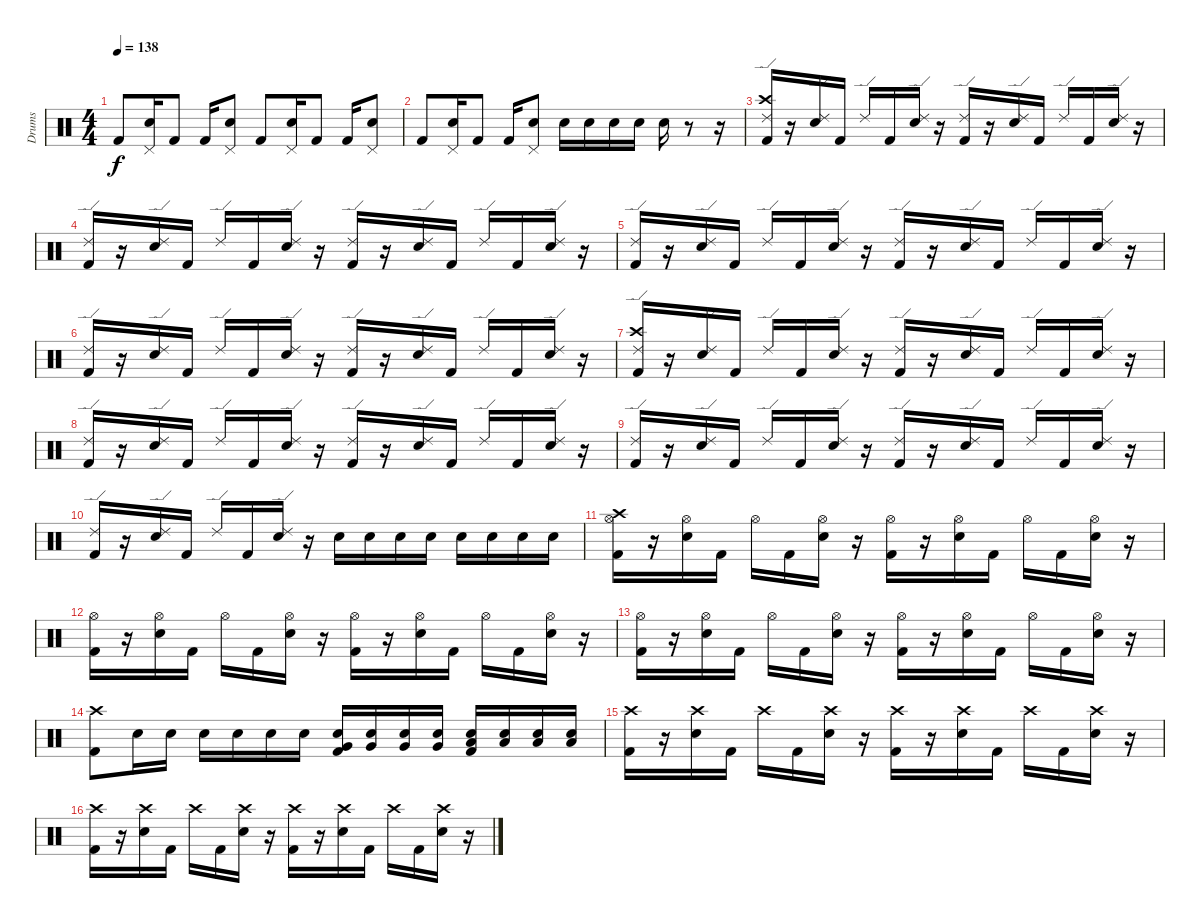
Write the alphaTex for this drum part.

\track ("Drums" "Drums") {instrument percussion}
\staff {score}
\articulation defaults
\ts (4 4)
\tempo 138
\clef neutral
\ks c "Kick (hit) 2".8{dy f}
("Pedal Hi-Hat (hit)" "Snare (hit) 2").16 "Kick (hit) 2".8 "Kick (hit) 2".16 ("Pedal Hi-Hat (hit)" "Snare (hit) 2").8 "Kick (hit) 2".8 ("Pedal Hi-Hat (hit)" "Snare (hit) 2").16 "Kick (hit) 2".8 "Kick (hit) 2".16 ("Pedal Hi-Hat (hit)" "Snare (hit) 2").8 |
"Kick (hit) 2".8 ("Pedal Hi-Hat (hit)" "Snare (hit) 2").16 "Kick (hit) 2".8 "Kick (hit) 2".16 ("Pedal Hi-Hat (hit)" "Snare (hit) 2").8 "Snare (hit) 2".16 "Snare (hit) 2".16 "Snare (hit) 2".16 "Snare (hit) 2".16 "Snare (hit) 2".16 r.8 r.16 |
("Crash high (hit)" "Ride (edge) 2" "Kick (hit) 2").16 r.16 ("Ride (edge) 2" "Snare (hit) 2").16 "Kick (hit) 2".16 "Ride (edge) 2".16 "Kick (hit) 2".16 ("Ride (edge) 2" "Snare (hit) 2").16 r.16 ("Ride (edge) 2" "Kick (hit) 2").16 r.16 ("Ride (edge) 2" "Snare (hit) 2").16 "Kick (hit) 2".16 "Ride (edge) 2".16 "Kick (hit) 2".16 ("Ride (edge) 2" "Snare (hit) 2").16 r.16 |
("Ride (edge) 2" "Kick (hit) 2").16 r.16 ("Ride (edge) 2" "Snare (hit) 2").16 "Kick (hit) 2".16 "Ride (edge) 2".16 "Kick (hit) 2".16 ("Ride (edge) 2" "Snare (hit) 2").16 r.16 ("Ride (edge) 2" "Kick (hit) 2").16 r.16 ("Ride (edge) 2" "Snare (hit) 2").16 "Kick (hit) 2".16 "Ride (edge) 2".16 "Kick (hit) 2".16 ("Ride (edge) 2" "Snare (hit) 2").16 r.16 |
("Ride (edge) 2" "Kick (hit) 2").16 r.16 ("Ride (edge) 2" "Snare (hit) 2").16 "Kick (hit) 2".16 "Ride (edge) 2".16 "Kick (hit) 2".16 ("Ride (edge) 2" "Snare (hit) 2").16 r.16 ("Ride (edge) 2" "Kick (hit) 2").16 r.16 ("Ride (edge) 2" "Snare (hit) 2").16 "Kick (hit) 2".16 "Ride (edge) 2".16 "Kick (hit) 2".16 ("Ride (edge) 2" "Snare (hit) 2").16 r.16 |
("Ride (edge) 2" "Kick (hit) 2").16 r.16 ("Ride (edge) 2" "Snare (hit) 2").16 "Kick (hit) 2".16 "Ride (edge) 2".16 "Kick (hit) 2".16 ("Ride (edge) 2" "Snare (hit) 2").16 r.16 ("Ride (edge) 2" "Kick (hit) 2").16 r.16 ("Ride (edge) 2" "Snare (hit) 2").16 "Kick (hit) 2".16 "Ride (edge) 2".16 "Kick (hit) 2".16 ("Ride (edge) 2" "Snare (hit) 2").16 r.16 |
("Crash high (hit)" "Ride (edge) 2" "Kick (hit) 2").16 r.16 ("Ride (edge) 2" "Snare (hit) 2").16 "Kick (hit) 2".16 "Ride (edge) 2".16 "Kick (hit) 2".16 ("Ride (edge) 2" "Snare (hit) 2").16 r.16 ("Ride (edge) 2" "Kick (hit) 2").16 r.16 ("Ride (edge) 2" "Snare (hit) 2").16 "Kick (hit) 2".16 "Ride (edge) 2".16 "Kick (hit) 2".16 ("Ride (edge) 2" "Snare (hit) 2").16 r.16 |
("Ride (edge) 2" "Kick (hit) 2").16 r.16 ("Ride (edge) 2" "Snare (hit) 2").16 "Kick (hit) 2".16 "Ride (edge) 2".16 "Kick (hit) 2".16 ("Ride (edge) 2" "Snare (hit) 2").16 r.16 ("Ride (edge) 2" "Kick (hit) 2").16 r.16 ("Ride (edge) 2" "Snare (hit) 2").16 "Kick (hit) 2".16 "Ride (edge) 2".16 "Kick (hit) 2".16 ("Ride (edge) 2" "Snare (hit) 2").16 r.16 |
("Ride (edge) 2" "Kick (hit) 2").16 r.16 ("Ride (edge) 2" "Snare (hit) 2").16 "Kick (hit) 2".16 "Ride (edge) 2".16 "Kick (hit) 2".16 ("Ride (edge) 2" "Snare (hit) 2").16 r.16 ("Ride (edge) 2" "Kick (hit) 2").16 r.16 ("Ride (edge) 2" "Snare (hit) 2").16 "Kick (hit) 2".16 "Ride (edge) 2".16 "Kick (hit) 2".16 ("Ride (edge) 2" "Snare (hit) 2").16 r.16 |
("Ride (edge) 2" "Kick (hit) 2").16 r.16 ("Ride (edge) 2" "Snare (hit) 2").16 "Kick (hit) 2".16 "Ride (edge) 2".16 "Kick (hit) 2".16 ("Ride (edge) 2" "Snare (hit) 2").16 r.16 "Snare (hit) 2".16 "Snare (hit) 2".16 "Snare (hit) 2".16 "Snare (hit) 2".16 "Snare (hit) 2".16 "Snare (hit) 2".16 "Snare (hit) 2".16 "Snare (hit) 2".16 |
("Crash high (hit)" "Hi-Hat (open)" "Kick (hit) 2").16 r.16 ("Hi-Hat (open)" "Snare (hit) 2").16 "Kick (hit) 2".16 "Hi-Hat (open)".16 "Kick (hit) 2".16 ("Hi-Hat (open)" "Snare (hit) 2").16 r.16 ("Hi-Hat (open)" "Kick (hit) 2").16 r.16 ("Hi-Hat (open)" "Snare (hit) 2").16 "Kick (hit) 2".16 "Hi-Hat (open)".16 "Kick (hit) 2".16 ("Hi-Hat (open)" "Snare (hit) 2").16 r.16 |
("Hi-Hat (open)" "Kick (hit) 2").16 r.16 ("Hi-Hat (open)" "Snare (hit) 2").16 "Kick (hit) 2".16 "Hi-Hat (open)".16 "Kick (hit) 2".16 ("Hi-Hat (open)" "Snare (hit) 2").16 r.16 ("Hi-Hat (open)" "Kick (hit) 2").16 r.16 ("Hi-Hat (open)" "Snare (hit) 2").16 "Kick (hit) 2".16 "Hi-Hat (open)".16 "Kick (hit) 2".16 ("Hi-Hat (open)" "Snare (hit) 2").16 r.16 |
("Hi-Hat (open)" "Kick (hit) 2").16 r.16 ("Hi-Hat (open)" "Snare (hit) 2").16 "Kick (hit) 2".16 "Hi-Hat (open)".16 "Kick (hit) 2".16 ("Hi-Hat (open)" "Snare (hit) 2").16 r.16 ("Hi-Hat (open)" "Kick (hit) 2").16 r.16 ("Hi-Hat (open)" "Snare (hit) 2").16 "Kick (hit) 2".16 "Hi-Hat (open)".16 "Kick (hit) 2".16 ("Hi-Hat (open)" "Snare (hit) 2").16 r.16 |
("Crash high (hit)" "Kick (hit) 2").8 "Snare (hit) 2".16 "Snare (hit) 2".16 "Snare (hit) 2".16 "Snare (hit) 2".16 "Snare (hit) 2".16 "Snare (hit) 2".16 ("Very Low Tom (hit)" "Snare (hit) 2" "Kick (hit) 2").16 ("Very Low Tom (hit)" "Snare (hit) 2").16 ("Very Low Tom (hit)" "Snare (hit) 2").16 ("Very Low Tom (hit)" "Snare (hit) 2").16 ("Low Floor Tom (hit)" "Snare (hit) 2" "Kick (hit) 2").16 ("Low Floor Tom (hit)" "Snare (hit) 2").16 ("Low Floor Tom (hit)" "Snare (hit) 2").16 ("Low Floor Tom (hit)" "Snare (hit) 2").16 |
("Crash high (hit)" "Kick (hit) 2").16 r.16 ("Crash high (hit)" "Snare (hit) 2").16 "Kick (hit) 2".16 "Crash high (hit)".16 "Kick (hit) 2".16 ("Crash high (hit)" "Snare (hit) 2").16 r.16 ("Crash high (hit)" "Kick (hit) 2").16 r.16 ("Crash high (hit)" "Snare (hit) 2").16 "Kick (hit) 2".16 "Crash high (hit)".16 "Kick (hit) 2".16 ("Crash high (hit)" "Snare (hit) 2").16 r.16 |
("Crash high (hit)" "Kick (hit) 2").16 r.16 ("Crash high (hit)" "Snare (hit) 2").16 "Kick (hit) 2".16 "Crash high (hit)".16 "Kick (hit) 2".16 ("Crash high (hit)" "Snare (hit) 2").16 r.16 ("Crash high (hit)" "Kick (hit) 2").16 r.16 ("Crash high (hit)" "Snare (hit) 2").16 "Kick (hit) 2".16 "Crash high (hit)".16 "Kick (hit) 2".16 ("Crash high (hit)" "Snare (hit) 2").16 r.16
